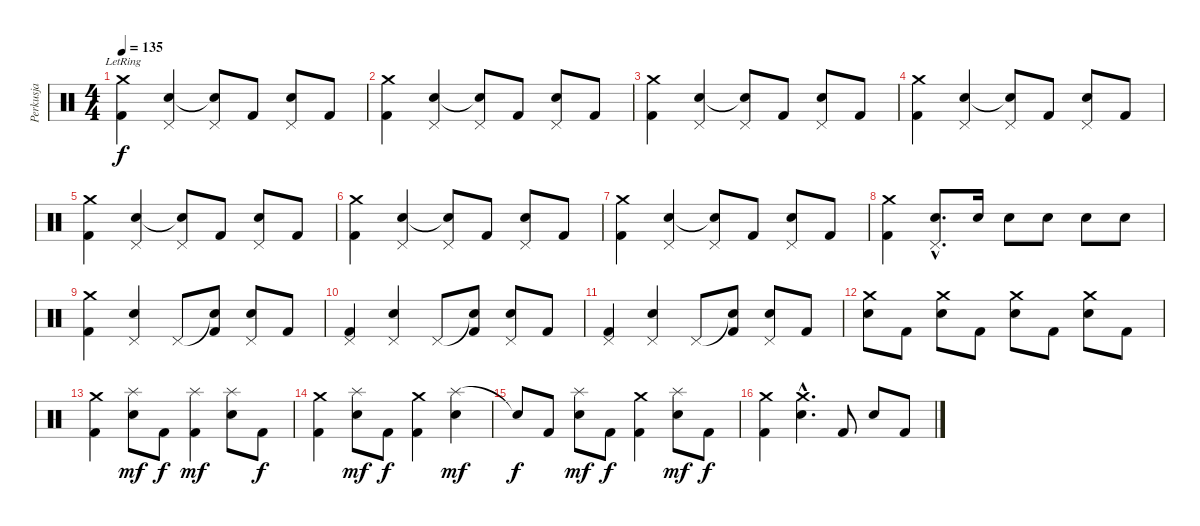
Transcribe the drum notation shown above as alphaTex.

\track ("Perkusja" "Perkusja") {instrument percussion}
\staff {score}
\articulation defaults
\ts (4 4)
\tempo 135
\clef neutral
\ks c
("Crash medium (hit)"{lr} "Kick (hit) 2").4{dy f} ("Pedal Hi-Hat (hit)" "Snare (hit) 2").4 ("Pedal Hi-Hat (hit)" "Snare (hit)"{t}).8 "Kick (hit) 2".8 ("Pedal Hi-Hat (hit)" "Snare (hit) 2").8 "Kick (hit) 2".8 |
("Crash medium (hit)" "Kick (hit) 2").4 ("Pedal Hi-Hat (hit)" "Snare (hit) 2").4 ("Pedal Hi-Hat (hit)" "Snare (hit)"{t}).8 "Kick (hit) 2".8 ("Pedal Hi-Hat (hit)" "Snare (hit) 2").8 "Kick (hit) 2".8 |
("Crash medium (hit)" "Kick (hit) 2").4 ("Pedal Hi-Hat (hit)" "Snare (hit) 2").4 ("Pedal Hi-Hat (hit)" "Snare (hit)"{t}).8 "Kick (hit) 2".8 ("Pedal Hi-Hat (hit)" "Snare (hit) 2").8 "Kick (hit) 2".8 |
("Crash medium (hit)" "Kick (hit) 2").4 ("Pedal Hi-Hat (hit)" "Snare (hit) 2").4 ("Pedal Hi-Hat (hit)" "Snare (hit)"{t}).8 "Kick (hit) 2".8 ("Pedal Hi-Hat (hit)" "Snare (hit) 2").8 "Kick (hit) 2".8 |
("Crash medium (hit)" "Kick (hit) 2").4 ("Pedal Hi-Hat (hit)" "Snare (hit) 2").4 ("Pedal Hi-Hat (hit)" "Snare (hit)"{t}).8 "Kick (hit) 2".8 ("Pedal Hi-Hat (hit)" "Snare (hit) 2").8 "Kick (hit) 2".8 |
("Crash medium (hit)" "Kick (hit) 2").4 ("Pedal Hi-Hat (hit)" "Snare (hit) 2").4 ("Pedal Hi-Hat (hit)" "Snare (hit)"{t}).8 "Kick (hit) 2".8 ("Pedal Hi-Hat (hit)" "Snare (hit) 2").8 "Kick (hit) 2".8 |
("Crash medium (hit)" "Kick (hit) 2").4 ("Pedal Hi-Hat (hit)" "Snare (hit) 2").4 ("Pedal Hi-Hat (hit)" "Snare (hit)"{t}).8 "Kick (hit) 2".8 ("Pedal Hi-Hat (hit)" "Snare (hit) 2").8 "Kick (hit) 2".8 |
("Crash medium (hit)" "Kick (hit) 2").4 ("Pedal Hi-Hat (hit)"{hac} "Snare (hit) 2"{hac}).8{d} "Snare (hit) 2".16 "Snare (hit) 2".8 "Snare (hit) 2".8 "Snare (hit) 2".8 "Snare (hit) 2".8 |
("Crash medium (hit)" "Kick (hit) 2").4 ("Pedal Hi-Hat (hit)" "Snare (hit) 2").4 "Pedal Hi-Hat (hit)".8 ("Snare (hit)"{t} "Kick (hit) 2").8 ("Pedal Hi-Hat (hit)" "Snare (hit) 2").8 "Kick (hit) 2".8 |
("Pedal Hi-Hat (hit)" "Kick (hit) 2").4 ("Pedal Hi-Hat (hit)" "Snare (hit) 2").4 "Pedal Hi-Hat (hit)".8 ("Snare (hit)"{t} "Kick (hit) 2").8 ("Pedal Hi-Hat (hit)" "Snare (hit) 2").8 "Kick (hit) 2".8 |
("Pedal Hi-Hat (hit)" "Kick (hit) 2").4 ("Pedal Hi-Hat (hit)" "Snare (hit) 2").4 "Pedal Hi-Hat (hit)".8 ("Snare (hit)"{t} "Kick (hit) 2").8 ("Pedal Hi-Hat (hit)" "Snare (hit) 2").8 "Kick (hit) 2".8 |
("Crash medium (hit)" "Snare (hit) 2").8 "Kick (hit) 2".8 ("Crash medium (hit)" "Snare (hit) 2").8 "Kick (hit) 2".8 ("Crash medium (hit)" "Snare (hit) 2").8 "Kick (hit) 2".8 ("Crash medium (hit)" "Snare (hit) 2").8 "Kick (hit) 2".8 |
("Crash medium (hit)" "Kick (hit) 2").4 ("Splash (hit)" "Snare (hit) 2").8{dy mf} "Kick (hit) 2".8{dy f} ("Splash (hit)" "Kick (hit) 2").4{dy mf} ("Splash (hit)" "Snare (hit) 2").8 "Kick (hit) 2".8{dy f} |
("Crash medium (hit)" "Kick (hit) 2").4 ("Splash (hit)" "Snare (hit) 2").8{dy mf} "Kick (hit) 2".8{dy f} ("Crash medium (hit)" "Kick (hit) 2").4 ("Splash (hit)" "Snare (hit) 2").4{dy mf} |
"Snare (hit)"{t}.8{dy f} "Kick (hit) 2".8 ("Splash (hit)" "Snare (hit) 2").8{dy mf} "Kick (hit) 2".8{dy f} ("Crash medium (hit)" "Kick (hit) 2").4 ("Splash (hit)" "Snare (hit) 2").8{dy mf} "Kick (hit) 2".8{dy f} |
("Crash medium (hit)" "Kick (hit) 2").4 ("Crash medium (hit)"{hac} "Snare (hit) 2"{hac}).4{d} "Kick (hit) 2".8 "Snare (hit) 2".8 "Kick (hit) 2".8
